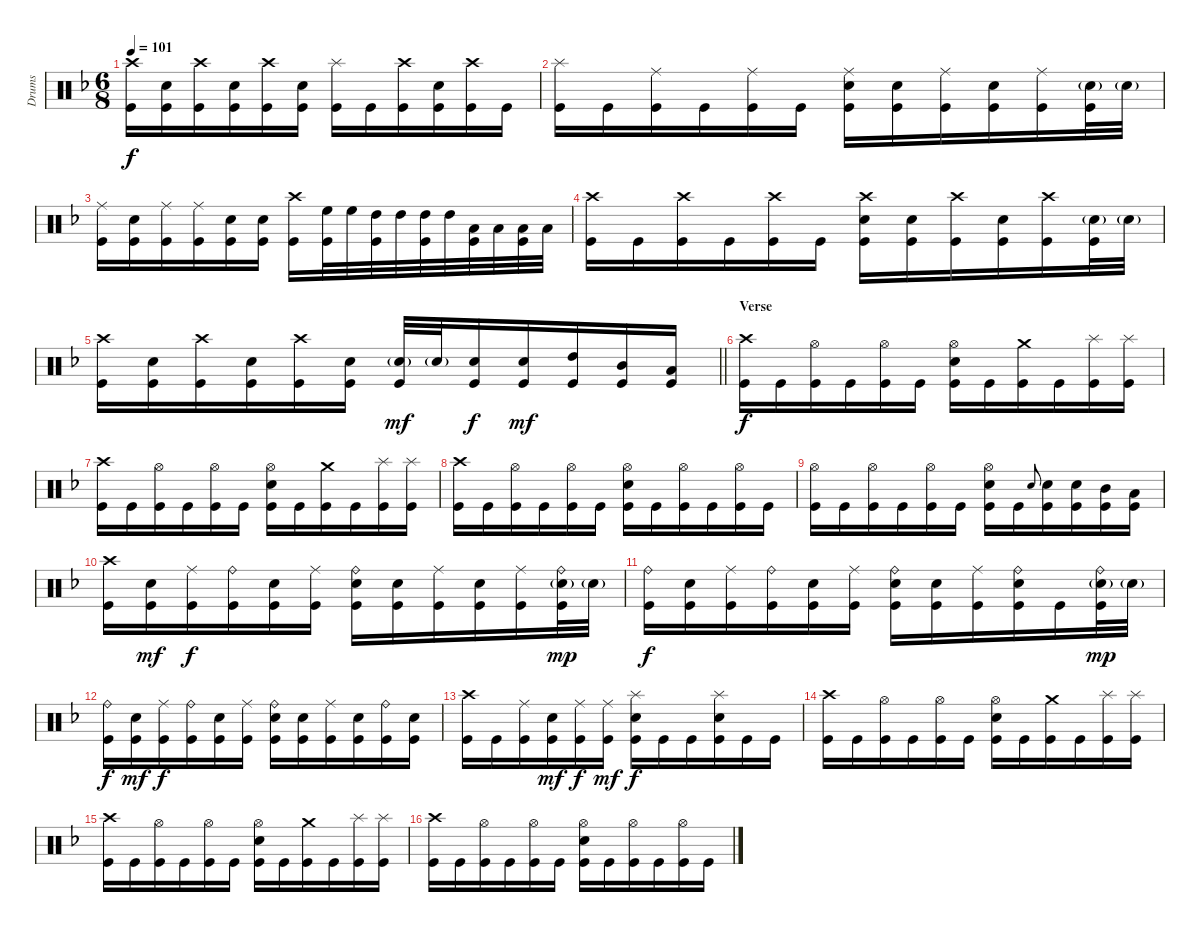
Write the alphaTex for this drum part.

\track ("Drums" "Drums") {instrument percussion bank 10}
\staff {score}
\articulation defaults
\ts (6 8)
\tempo 101
\clef neutral
\ks dminor
("Crash high (hit)" "Kick (hit)").16{dy f} ("Electric Snare (hit)" "Kick (hit)").16 ("Crash high (hit)" "Kick (hit)").16 ("Electric Snare (hit)" "Kick (hit)").16 ("Crash high (hit)" "Kick (hit)").16 ("Electric Snare (hit)" "Kick (hit)").16 ("Splash (hit)" "Kick (hit)").16 "Kick (hit)".16 ("Crash high (hit)" "Kick (hit)").16 ("Electric Snare (hit)" "Kick (hit)").16 ("Crash high (hit)" "Kick (hit)").16 "Kick (hit)".16 |
("Splash (hit)" "Kick (hit)").16 "Kick (hit)".16 ("Ride (middle)" "Kick (hit)").16 "Kick (hit)".16 ("Ride (middle)" "Kick (hit)").16 "Kick (hit)".16 ("Ride (middle)" "Electric Snare (hit)" "Kick (hit)").16 ("Electric Snare (hit)" "Kick (hit)").16 ("Ride (middle)" "Kick (hit)").16 ("Electric Snare (hit)" "Kick (hit)").16 ("Ride (middle)" "Kick (hit)").16 ("Electric Snare (hit)"{g} "Kick (hit)").32 "Electric Snare (hit)"{g}.32 |
("Ride (middle)" "Kick (hit)").16 ("Electric Snare (hit)" "Kick (hit)").16 ("Ride (middle)" "Kick (hit)").16 ("Ride (middle)" "Kick (hit)").16 ("Electric Snare (hit)" "Kick (hit)").16 ("Electric Snare (hit)" "Kick (hit)").16 ("Crash high (hit)" "Kick (hit)").16 ("High Floor Tom (hit)" "Kick (hit)").32 "High Floor Tom (hit)".32 ("High Tom (hit)" "Kick (hit)").32 "High Tom (hit)".32 ("High Tom (hit)" "Kick (hit)").32 "High Tom (hit)".32 ("Low Tom (hit)" "Kick (hit)").32 "Low Tom (hit)".32 ("Low Tom (hit)" "Kick (hit)").32 "Low Tom (hit)".32 |
("Crash high (hit)" "Kick (hit)").16 "Kick (hit)".16 ("Crash high (hit)" "Kick (hit)").16 "Kick (hit)".16 ("Crash high (hit)" "Kick (hit)").16 "Kick (hit)".16 ("Crash high (hit)" "Electric Snare (hit)" "Kick (hit)").16 ("Electric Snare (hit)" "Kick (hit)").16 ("Crash high (hit)" "Kick (hit)").16 ("Electric Snare (hit)" "Kick (hit)").16 ("Crash high (hit)" "Kick (hit)").16 ("Electric Snare (hit)"{g} "Kick (hit)").32 "Electric Snare (hit)"{g}.32 |
\barLineRight lightlight
("Crash high (hit)" "Kick (hit)").16 ("Electric Snare (hit)" "Kick (hit)").16 ("Crash high (hit)" "Kick (hit)").16 ("Electric Snare (hit)" "Kick (hit)").16 ("Crash high (hit)" "Kick (hit)").16 ("Electric Snare (hit)" "Kick (hit)").16 ("Electric Snare (hit)"{g} "Kick (hit)").32{dy mf} "Electric Snare (hit)"{g}.32 ("Electric Snare (hit)" "Kick (hit)").16{dy f} ("Electric Snare (hit)" "Kick (hit)").16{dy mf} ("High Tom (hit)" "Kick (hit)").16 ("Mid Tom (hit)" "Kick (hit)").16 ("Low Tom (hit)" "Kick (hit)").16 |
\section ("" "Verse")
("Crash high (hit)" "Kick (hit)").16{dy f} "Kick (hit)".16 ("Hi-Hat (open)" "Kick (hit)").16 "Kick (hit)".16 ("Hi-Hat (open)" "Kick (hit)").16 "Kick (hit)".16 ("Hi-Hat (open)" "Electric Snare (hit)" "Kick (hit)").16 "Kick (hit)".16 ("Crash medium (hit)" "Kick (hit)").16 "Kick (hit)".16 ("Splash (hit)" "Kick (hit)").16 ("Splash (hit)" "Kick (hit)").16 |
("Crash high (hit)" "Kick (hit)").16 "Kick (hit)".16 ("Hi-Hat (open)" "Kick (hit)").16 "Kick (hit)".16 ("Hi-Hat (open)" "Kick (hit)").16 "Kick (hit)".16 ("Hi-Hat (open)" "Electric Snare (hit)" "Kick (hit)").16 "Kick (hit)".16 ("Crash medium (hit)" "Kick (hit)").16 "Kick (hit)".16 ("Splash (hit)" "Kick (hit)").16 ("Splash (hit)" "Kick (hit)").16 |
("Crash high (hit)" "Kick (hit)").16 "Kick (hit)".16 ("Hi-Hat (open)" "Kick (hit)").16 "Kick (hit)".16 ("Hi-Hat (open)" "Kick (hit)").16 "Kick (hit)".16 ("Hi-Hat (open)" "Electric Snare (hit)" "Kick (hit)").16 "Kick (hit)".16 ("Hi-Hat (open)" "Kick (hit)").16 "Kick (hit)".16 ("Hi-Hat (open)" "Kick (hit)").16 "Kick (hit)".16 |
("Hi-Hat (open)" "Kick (hit)").16 "Kick (hit)".16 ("Hi-Hat (open)" "Kick (hit)").16 "Kick (hit)".16 ("Hi-Hat (open)" "Kick (hit)").16 "Kick (hit)".16 ("Hi-Hat (open)" "Electric Snare (hit)" "Kick (hit)").16 "Kick (hit)".16 "Electric Snare (hit)".8{gr onbeat} ("Electric Snare (hit)" "Kick (hit)").16 ("Electric Snare (hit)" "Kick (hit)").16 ("Mid Tom (hit)" "Kick (hit)").16 ("Low Tom (hit)" "Kick (hit)").16 |
("Crash high (hit)" "Kick (hit)").16 ("Electric Snare (hit)" "Kick (hit)").16{dy mf} ("Ride (middle)" "Kick (hit)").16{dy f} ("Ride (bell)" "Kick (hit)").16 ("Electric Snare (hit)" "Kick (hit)").16 ("Ride (middle)" "Kick (hit)").16 ("Ride (bell)" "Electric Snare (hit)" "Kick (hit)").16 ("Electric Snare (hit)" "Kick (hit)").16 ("Ride (middle)" "Kick (hit)").16 ("Electric Snare (hit)" "Kick (hit)").16 ("Ride (middle)" "Kick (hit)").16 ("Ride (bell)" "Electric Snare (hit)"{g} "Kick (hit)").32{dy mp} "Electric Snare (hit)"{g}.32 |
("Ride (bell)" "Kick (hit)").16{dy f} ("Electric Snare (hit)" "Kick (hit)").16 ("Ride (middle)" "Kick (hit)").16 ("Ride (bell)" "Kick (hit)").16 ("Electric Snare (hit)" "Kick (hit)").16 ("Ride (middle)" "Kick (hit)").16 ("Ride (bell)" "Electric Snare (hit)" "Kick (hit)").16 ("Electric Snare (hit)" "Kick (hit)").16 ("Ride (middle)" "Kick (hit)").16 ("Ride (bell)" "Electric Snare (hit)" "Kick (hit)").16 "Kick (hit)".16 ("Ride (bell)" "Electric Snare (hit)"{g} "Kick (hit)").32{dy mp} "Electric Snare (hit)"{g}.32 |
("Ride (bell)" "Kick (hit)").16{dy f} ("Electric Snare (hit)" "Kick (hit)").16{dy mf} ("Ride (middle)" "Kick (hit)").16{dy f} ("Ride (bell)" "Kick (hit)").16 ("Electric Snare (hit)" "Kick (hit)").16 ("Ride (middle)" "Kick (hit)").16 ("Ride (bell)" "Electric Snare (hit)" "Kick (hit)").16 ("Electric Snare (hit)" "Kick (hit)").16 ("Ride (middle)" "Kick (hit)").16 ("Electric Snare (hit)" "Kick (hit)").16 ("Ride (bell)" "Kick (hit)").16 ("Electric Snare (hit)" "Kick (hit)").16 |
("Crash high (hit)" "Kick (hit)").16 "Kick (hit)".16 ("Ride (middle)" "Kick (hit)").16 ("Electric Snare (hit)" "Kick (hit)").16{dy mf} ("Ride (middle)" "Kick (hit)").16{dy f} ("Ride (middle)" "Kick (hit)").16{dy mf} ("Splash (hit)" "Electric Snare (hit)" "Kick (hit)").16{dy f} "Kick (hit)".16 "Kick (hit)".16 ("Splash (hit)" "Electric Snare (hit)" "Kick (hit)").16 "Kick (hit)".16 "Kick (hit)".16 |
("Crash high (hit)" "Kick (hit)").16 "Kick (hit)".16 ("Hi-Hat (open)" "Kick (hit)").16 "Kick (hit)".16 ("Hi-Hat (open)" "Kick (hit)").16 "Kick (hit)".16 ("Hi-Hat (open)" "Electric Snare (hit)" "Kick (hit)").16 "Kick (hit)".16 ("Crash medium (hit)" "Kick (hit)").16 "Kick (hit)".16 ("Splash (hit)" "Kick (hit)").16 ("Splash (hit)" "Kick (hit)").16 |
("Crash high (hit)" "Kick (hit)").16 "Kick (hit)".16 ("Hi-Hat (open)" "Kick (hit)").16 "Kick (hit)".16 ("Hi-Hat (open)" "Kick (hit)").16 "Kick (hit)".16 ("Hi-Hat (open)" "Electric Snare (hit)" "Kick (hit)").16 "Kick (hit)".16 ("Crash medium (hit)" "Kick (hit)").16 "Kick (hit)".16 ("Splash (hit)" "Kick (hit)").16 ("Splash (hit)" "Kick (hit)").16 |
("Crash high (hit)" "Kick (hit)").16 "Kick (hit)".16 ("Hi-Hat (open)" "Kick (hit)").16 "Kick (hit)".16 ("Hi-Hat (open)" "Kick (hit)").16 "Kick (hit)".16 ("Hi-Hat (open)" "Electric Snare (hit)" "Kick (hit)").16 "Kick (hit)".16 ("Hi-Hat (open)" "Kick (hit)").16 "Kick (hit)".16 ("Hi-Hat (open)" "Kick (hit)").16 "Kick (hit)".16
